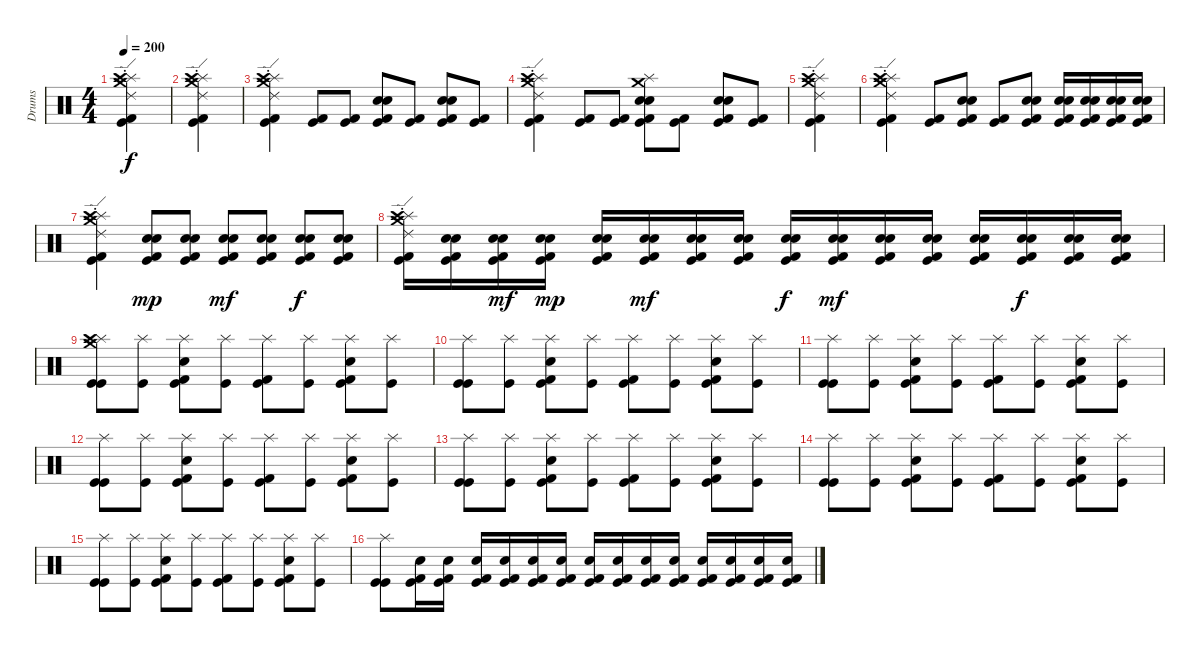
\track ("Drums" "Drums") {instrument percussion}
\staff {score}
\articulation defaults
\ts (4 4)
\tempo 200
\clef neutral
\ks c
("Splash (hit)"{st} "Crash medium (hit)"{st} "Ride (edge) 2"{st} "Crash high (hit)"{st} "Kick (hit)"{st} "Kick (hit) 2"{st}).4{dy f} |
("Splash (hit)"{st} "Crash medium (hit)"{st} "Ride (edge) 2"{st} "Crash high (hit)"{st} "Kick (hit)"{st} "Kick (hit) 2"{st}).4 |
("Splash (hit)"{st} "Crash medium (hit)"{st} "Ride (edge) 2"{st} "Crash high (hit)"{st} "Kick (hit)"{st} "Kick (hit) 2"{st}).4 ("Kick (hit) 2" "Kick (hit)").8 ("Kick (hit) 2" "Kick (hit)").8 ("Snare (hit) 2" "Electric Snare (hit)" "Kick (hit) 2" "Kick (hit)").8 ("Kick (hit) 2" "Kick (hit)").8 ("Snare (hit) 2" "Electric Snare (hit)" "Kick (hit) 2" "Kick (hit)").8 ("Kick (hit) 2" "Kick (hit)").8 |
("Splash (hit)"{st} "Crash medium (hit)"{st} "Ride (edge) 2"{st} "Crash high (hit)"{st} "Kick (hit)"{st} "Kick (hit) 2"{st}).4 ("Kick (hit) 2" "Kick (hit)").8 ("Kick (hit) 2" "Kick (hit)").8 ("Splash (hit)" "Crash medium (hit)" "Snare (hit) 2" "Electric Snare (hit)" "Kick (hit) 2" "Kick (hit)").8 ("Kick (hit) 2" "Kick (hit)").8 ("Snare (hit) 2" "Electric Snare (hit)" "Kick (hit) 2" "Kick (hit)").8 ("Kick (hit) 2" "Kick (hit)").8 |
("Splash (hit)"{st} "Crash medium (hit)"{st} "Ride (edge) 2"{st} "Crash high (hit)"{st} "Kick (hit)"{st} "Kick (hit) 2"{st}).4 |
("Splash (hit)"{st} "Crash medium (hit)"{st} "Ride (edge) 2"{st} "Crash high (hit)"{st} "Kick (hit)"{st} "Kick (hit) 2"{st}).4 ("Kick (hit)" "Kick (hit) 2").8 ("Snare (hit) 2" "Electric Snare (hit)" "Kick (hit)" "Kick (hit) 2").8 ("Kick (hit)" "Kick (hit) 2").8 ("Snare (hit) 2" "Electric Snare (hit)" "Kick (hit)" "Kick (hit) 2").8 ("Snare (hit) 2" "Electric Snare (hit)" "Kick (hit)" "Kick (hit) 2").16 ("Snare (hit) 2" "Electric Snare (hit)" "Kick (hit)" "Kick (hit) 2").16 ("Snare (hit) 2" "Electric Snare (hit)" "Kick (hit)" "Kick (hit) 2").16 ("Snare (hit) 2" "Electric Snare (hit)" "Kick (hit)" "Kick (hit) 2").16 |
("Splash (hit)"{st} "Crash medium (hit)"{st} "Ride (edge) 2"{st} "Crash high (hit)"{st} "Kick (hit)"{st} "Kick (hit) 2"{st}).4 ("Snare (hit) 2" "Electric Snare (hit)" "Kick (hit)" "Kick (hit) 2").8{dy mp} ("Snare (hit) 2" "Electric Snare (hit)" "Kick (hit)" "Kick (hit) 2").8 ("Snare (hit) 2" "Electric Snare (hit)" "Kick (hit)" "Kick (hit) 2").8{dy mf} ("Snare (hit) 2" "Electric Snare (hit)" "Kick (hit)" "Kick (hit) 2").8 ("Snare (hit) 2" "Electric Snare (hit)" "Kick (hit)" "Kick (hit) 2").8{dy f} ("Snare (hit) 2" "Electric Snare (hit)" "Kick (hit)" "Kick (hit) 2").8 |
("Splash (hit)"{st} "Crash medium (hit)"{st} "Ride (edge) 2"{st} "Crash high (hit)"{st} "Kick (hit)"{st} "Kick (hit) 2"{st}).16 ("Snare (hit) 2" "Electric Snare (hit)" "Kick (hit)" "Kick (hit) 2").16 ("Snare (hit) 2" "Electric Snare (hit)" "Kick (hit)" "Kick (hit) 2").16{dy mf} ("Snare (hit) 2" "Electric Snare (hit)" "Kick (hit)" "Kick (hit) 2").16{dy mp} ("Snare (hit) 2" "Electric Snare (hit)" "Kick (hit)" "Kick (hit) 2").16 ("Snare (hit) 2" "Electric Snare (hit)" "Kick (hit)" "Kick (hit) 2").16{dy mf} ("Snare (hit) 2" "Electric Snare (hit)" "Kick (hit)" "Kick (hit) 2").16 ("Snare (hit) 2" "Electric Snare (hit)" "Kick (hit)" "Kick (hit) 2").16 ("Snare (hit) 2" "Electric Snare (hit)" "Kick (hit)" "Kick (hit) 2").16{dy f} ("Snare (hit) 2" "Electric Snare (hit)" "Kick (hit)" "Kick (hit) 2").16{dy mf} ("Snare (hit) 2" "Electric Snare (hit)" "Kick (hit)" "Kick (hit) 2").16 ("Snare (hit) 2" "Electric Snare (hit)" "Kick (hit)" "Kick (hit) 2").16 ("Snare (hit) 2" "Electric Snare (hit)" "Kick (hit)" "Kick (hit) 2").16 ("Snare (hit) 2" "Electric Snare (hit)" "Kick (hit)" "Kick (hit) 2").16{dy f} ("Snare (hit) 2" "Electric Snare (hit)" "Kick (hit)" "Kick (hit) 2").16 ("Snare (hit) 2" "Electric Snare (hit)" "Kick (hit)" "Kick (hit) 2").16 |
("Splash (hit)" "Crash high (hit)" "Crash medium (hit)" "Kick (hit)" "Kick (hit)").8 ("Splash (hit)" "Kick (hit)").8 ("Splash (hit)" "Snare (hit) 2" "Kick (hit) 2" "Kick (hit)").8 ("Splash (hit)" "Kick (hit)").8 ("Splash (hit)" "Kick (hit) 2" "Kick (hit)").8 ("Splash (hit)" "Kick (hit)").8 ("Splash (hit)" "Snare (hit) 2" "Kick (hit) 2" "Kick (hit)").8 ("Splash (hit)" "Kick (hit)").8 |
("Splash (hit)" "Kick (hit)" "Kick (hit)").8 ("Splash (hit)" "Kick (hit)").8 ("Splash (hit)" "Snare (hit) 2" "Kick (hit) 2" "Kick (hit)").8 ("Splash (hit)" "Kick (hit)").8 ("Splash (hit)" "Kick (hit) 2" "Kick (hit)").8 ("Splash (hit)" "Kick (hit)").8 ("Splash (hit)" "Snare (hit) 2" "Kick (hit) 2" "Kick (hit)").8 ("Splash (hit)" "Kick (hit)").8 |
("Splash (hit)" "Kick (hit)" "Kick (hit)").8 ("Splash (hit)" "Kick (hit)").8 ("Splash (hit)" "Snare (hit) 2" "Kick (hit) 2" "Kick (hit)").8 ("Splash (hit)" "Kick (hit)").8 ("Splash (hit)" "Kick (hit) 2" "Kick (hit)").8 ("Splash (hit)" "Kick (hit)").8 ("Splash (hit)" "Snare (hit) 2" "Kick (hit) 2" "Kick (hit)").8 ("Splash (hit)" "Kick (hit)").8 |
("Splash (hit)" "Kick (hit)" "Kick (hit)").8 ("Splash (hit)" "Kick (hit)").8 ("Splash (hit)" "Snare (hit) 2" "Kick (hit) 2" "Kick (hit)").8 ("Splash (hit)" "Kick (hit)").8 ("Splash (hit)" "Kick (hit) 2" "Kick (hit)").8 ("Splash (hit)" "Kick (hit)").8 ("Splash (hit)" "Snare (hit) 2" "Kick (hit) 2" "Kick (hit)").8 ("Splash (hit)" "Kick (hit)").8 |
("Splash (hit)" "Kick (hit)" "Kick (hit)").8 ("Splash (hit)" "Kick (hit)").8 ("Splash (hit)" "Snare (hit) 2" "Kick (hit) 2" "Kick (hit)").8 ("Splash (hit)" "Kick (hit)").8 ("Splash (hit)" "Kick (hit) 2" "Kick (hit)").8 ("Splash (hit)" "Kick (hit)").8 ("Splash (hit)" "Snare (hit) 2" "Kick (hit) 2" "Kick (hit)").8 ("Splash (hit)" "Kick (hit)").8 |
("Splash (hit)" "Kick (hit)" "Kick (hit)").8 ("Splash (hit)" "Kick (hit)").8 ("Splash (hit)" "Snare (hit) 2" "Kick (hit) 2" "Kick (hit)").8 ("Splash (hit)" "Kick (hit)").8 ("Splash (hit)" "Kick (hit) 2" "Kick (hit)").8 ("Splash (hit)" "Kick (hit)").8 ("Splash (hit)" "Snare (hit) 2" "Kick (hit) 2" "Kick (hit)").8 ("Splash (hit)" "Kick (hit)").8 |
("Splash (hit)" "Kick (hit)" "Kick (hit)").8 ("Splash (hit)" "Kick (hit)").8 ("Splash (hit)" "Snare (hit) 2" "Kick (hit) 2" "Kick (hit)").8 ("Splash (hit)" "Kick (hit)").8 ("Splash (hit)" "Kick (hit) 2" "Kick (hit)").8 ("Splash (hit)" "Kick (hit)").8 ("Splash (hit)" "Snare (hit) 2" "Kick (hit) 2" "Kick (hit)").8 ("Splash (hit)" "Kick (hit)").8 |
("Splash (hit)" "Kick (hit)" "Kick (hit)").8 ("Snare (hit) 2" "Kick (hit) 2" "Kick (hit)").16 ("Snare (hit) 2" "Kick (hit) 2" "Kick (hit)").16 ("Snare (hit) 2" "Kick (hit) 2" "Kick (hit)").16 ("Snare (hit) 2" "Kick (hit) 2" "Kick (hit)").16 ("Snare (hit) 2" "Kick (hit) 2" "Kick (hit)").16 ("Snare (hit) 2" "Kick (hit) 2" "Kick (hit)").16 ("Snare (hit) 2" "Kick (hit) 2" "Kick (hit)").16 ("Snare (hit) 2" "Kick (hit) 2" "Kick (hit)").16 ("Snare (hit) 2" "Kick (hit) 2" "Kick (hit)").16 ("Snare (hit) 2" "Kick (hit) 2" "Kick (hit)").16 ("Snare (hit) 2" "Kick (hit) 2" "Kick (hit)").16 ("Snare (hit) 2" "Kick (hit) 2" "Kick (hit)").16 ("Snare (hit) 2" "Kick (hit) 2" "Kick (hit)").16 ("Snare (hit) 2" "Kick (hit) 2" "Kick (hit)").16
